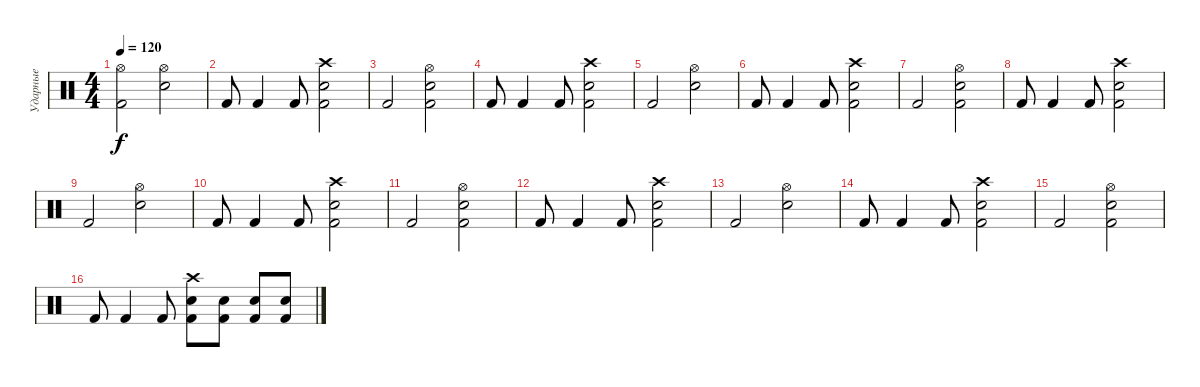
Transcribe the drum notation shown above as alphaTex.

\track ("Ударные" "Ударные") {instrument percussion}
\staff {score}
\articulation defaults
\ts (4 4)
\tempo 120
\clef neutral
\ks c
("Hi-Hat (open)" "Kick (hit) 2").2{dy f} ("Hi-Hat (open)" "Snare (hit) 2").2 |
"Kick (hit) 2".8 "Kick (hit) 2".4 "Kick (hit) 2".8 ("Crash high (hit)" "Snare (hit) 2" "Kick (hit) 2").2 |
"Kick (hit) 2".2 ("Hi-Hat (open)" "Snare (hit) 2" "Kick (hit) 2").2 |
"Kick (hit) 2".8 "Kick (hit) 2".4 "Kick (hit) 2".8 ("Crash high (hit)" "Snare (hit) 2" "Kick (hit) 2").2 |
"Kick (hit) 2".2 ("Hi-Hat (open)" "Snare (hit) 2").2 |
"Kick (hit) 2".8 "Kick (hit) 2".4 "Kick (hit) 2".8 ("Crash high (hit)" "Snare (hit) 2" "Kick (hit) 2").2 |
"Kick (hit) 2".2 ("Hi-Hat (open)" "Snare (hit) 2" "Kick (hit) 2").2 |
"Kick (hit) 2".8 "Kick (hit) 2".4 "Kick (hit) 2".8 ("Crash high (hit)" "Snare (hit) 2" "Kick (hit) 2").2 |
"Kick (hit) 2".2 ("Hi-Hat (open)" "Snare (hit) 2").2 |
"Kick (hit) 2".8 "Kick (hit) 2".4 "Kick (hit) 2".8 ("Crash high (hit)" "Snare (hit) 2" "Kick (hit) 2").2 |
"Kick (hit) 2".2 ("Hi-Hat (open)" "Snare (hit) 2" "Kick (hit) 2").2 |
"Kick (hit) 2".8 "Kick (hit) 2".4 "Kick (hit) 2".8 ("Crash high (hit)" "Snare (hit) 2" "Kick (hit) 2").2 |
"Kick (hit) 2".2 ("Hi-Hat (open)" "Snare (hit) 2").2 |
"Kick (hit) 2".8 "Kick (hit) 2".4 "Kick (hit) 2".8 ("Crash high (hit)" "Snare (hit) 2" "Kick (hit) 2").2 |
"Kick (hit) 2".2 ("Hi-Hat (open)" "Snare (hit) 2" "Kick (hit) 2").2 |
"Kick (hit) 2".8 "Kick (hit) 2".4 "Kick (hit) 2".8 ("Crash high (hit)" "Snare (hit) 2" "Kick (hit) 2").8 ("Snare (hit) 2" "Kick (hit) 2").8 ("Snare (hit) 2" "Kick (hit) 2").8 ("Snare (hit) 2" "Kick (hit) 2").8
